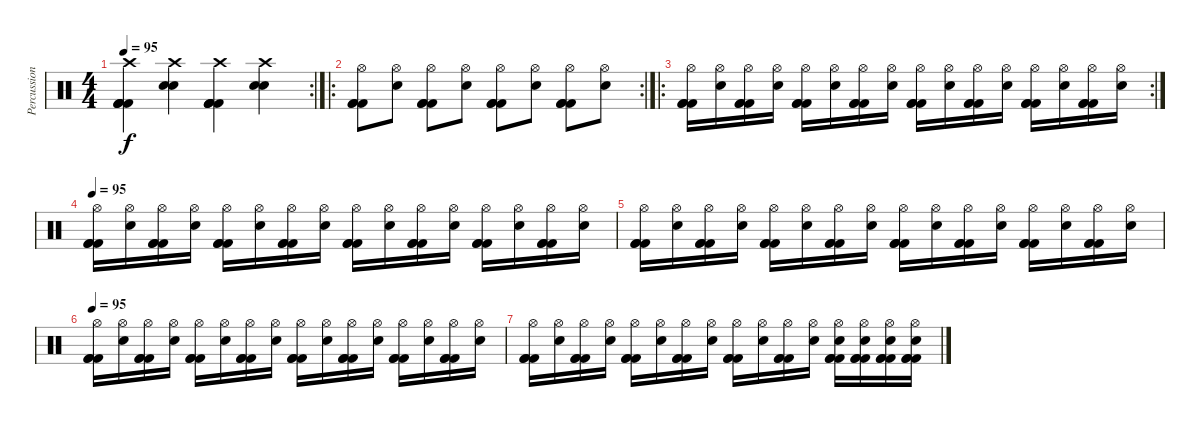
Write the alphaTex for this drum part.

\track ("Percussion" "Percussion") {instrument percussion}
\staff {score}
\articulation defaults
\rc 2
\ts (4 4)
\tempo 95
\clef neutral
\ks c
("Crash high (hit)" "Kick (hit) 2" "Kick (hit) 2" "Kick (hit) 2" "Kick (hit) 2").4{dy f} ("Crash high (hit)" "Snare (hit) 2" "Snare (hit) 2").4 ("Crash high (hit)" "Kick (hit) 2" "Kick (hit) 2" "Kick (hit) 2" "Kick (hit) 2").4 ("Crash high (hit)" "Snare (hit) 2" "Snare (hit) 2").4 |
\ro
\rc 2
("Hi-Hat (open)" "Kick (hit) 2" "Kick (hit) 2" "Kick (hit) 2").8 ("Hi-Hat (open)" "Snare (hit) 2").8 ("Hi-Hat (open)" "Kick (hit) 2" "Kick (hit) 2" "Kick (hit) 2").8 ("Hi-Hat (open)" "Snare (hit) 2").8 ("Hi-Hat (open)" "Kick (hit) 2" "Kick (hit) 2" "Kick (hit) 2").8 ("Hi-Hat (open)" "Snare (hit) 2").8 ("Hi-Hat (open)" "Kick (hit) 2" "Kick (hit) 2" "Kick (hit) 2").8 ("Hi-Hat (open)" "Snare (hit) 2").8 |
\ro
\rc 2
("Hi-Hat (open)" "Kick (hit) 2" "Kick (hit) 2" "Kick (hit) 2").16 ("Hi-Hat (open)" "Snare (hit) 2").16 ("Hi-Hat (open)" "Kick (hit) 2" "Kick (hit) 2" "Kick (hit) 2").16 ("Hi-Hat (open)" "Snare (hit) 2").16 ("Hi-Hat (open)" "Kick (hit) 2" "Kick (hit) 2" "Kick (hit) 2").16 ("Hi-Hat (open)" "Snare (hit) 2").16 ("Hi-Hat (open)" "Kick (hit) 2" "Kick (hit) 2" "Kick (hit) 2").16 ("Hi-Hat (open)" "Snare (hit) 2").16 ("Hi-Hat (open)" "Kick (hit) 2" "Kick (hit) 2" "Kick (hit) 2").16 ("Hi-Hat (open)" "Snare (hit) 2").16 ("Hi-Hat (open)" "Kick (hit) 2" "Kick (hit) 2" "Kick (hit) 2").16 ("Hi-Hat (open)" "Snare (hit) 2").16 ("Hi-Hat (open)" "Kick (hit) 2" "Kick (hit) 2" "Kick (hit) 2").16 ("Hi-Hat (open)" "Snare (hit) 2").16 ("Hi-Hat (open)" "Kick (hit) 2" "Kick (hit) 2" "Kick (hit) 2").16 ("Hi-Hat (open)" "Snare (hit) 2").16 |
\tempo 95
("Hi-Hat (open)" "Kick (hit) 2" "Kick (hit) 2" "Kick (hit) 2").16 ("Hi-Hat (open)" "Snare (hit) 2").16 ("Hi-Hat (open)" "Kick (hit) 2" "Kick (hit) 2" "Kick (hit) 2").16 ("Hi-Hat (open)" "Snare (hit) 2").16 ("Hi-Hat (open)" "Kick (hit) 2" "Kick (hit) 2" "Kick (hit) 2").16 ("Hi-Hat (open)" "Snare (hit) 2").16 ("Hi-Hat (open)" "Kick (hit) 2" "Kick (hit) 2" "Kick (hit) 2").16 ("Hi-Hat (open)" "Snare (hit) 2").16 ("Hi-Hat (open)" "Kick (hit) 2" "Kick (hit) 2" "Kick (hit) 2").16 ("Hi-Hat (open)" "Snare (hit) 2").16 ("Hi-Hat (open)" "Kick (hit) 2" "Kick (hit) 2" "Kick (hit) 2").16 ("Hi-Hat (open)" "Snare (hit) 2").16 ("Hi-Hat (open)" "Kick (hit) 2" "Kick (hit) 2" "Kick (hit) 2").16 ("Hi-Hat (open)" "Snare (hit) 2").16 ("Hi-Hat (open)" "Kick (hit) 2" "Kick (hit) 2" "Kick (hit) 2").16 ("Hi-Hat (open)" "Snare (hit) 2").16 |
("Hi-Hat (open)" "Kick (hit) 2" "Kick (hit) 2" "Kick (hit) 2").16 ("Hi-Hat (open)" "Snare (hit) 2").16 ("Hi-Hat (open)" "Kick (hit) 2" "Kick (hit) 2" "Kick (hit) 2").16 ("Hi-Hat (open)" "Snare (hit) 2").16 ("Hi-Hat (open)" "Kick (hit) 2" "Kick (hit) 2" "Kick (hit) 2").16 ("Hi-Hat (open)" "Snare (hit) 2").16 ("Hi-Hat (open)" "Kick (hit) 2" "Kick (hit) 2" "Kick (hit) 2").16 ("Hi-Hat (open)" "Snare (hit) 2").16 ("Hi-Hat (open)" "Kick (hit) 2" "Kick (hit) 2" "Kick (hit) 2").16 ("Hi-Hat (open)" "Snare (hit) 2").16 ("Hi-Hat (open)" "Kick (hit) 2" "Kick (hit) 2" "Kick (hit) 2").16 ("Hi-Hat (open)" "Snare (hit) 2").16 ("Hi-Hat (open)" "Kick (hit) 2" "Kick (hit) 2" "Kick (hit) 2").16 ("Hi-Hat (open)" "Snare (hit) 2").16 ("Hi-Hat (open)" "Kick (hit) 2" "Kick (hit) 2" "Kick (hit) 2").16 ("Hi-Hat (open)" "Snare (hit) 2").16 |
\tempo 95
("Hi-Hat (open)" "Kick (hit) 2" "Kick (hit) 2" "Kick (hit) 2").16 ("Hi-Hat (open)" "Snare (hit) 2").16 ("Hi-Hat (open)" "Kick (hit) 2" "Kick (hit) 2" "Kick (hit) 2").16 ("Hi-Hat (open)" "Snare (hit) 2").16 ("Hi-Hat (open)" "Kick (hit) 2" "Kick (hit) 2" "Kick (hit) 2").16 ("Hi-Hat (open)" "Snare (hit) 2").16 ("Hi-Hat (open)" "Kick (hit) 2" "Kick (hit) 2" "Kick (hit) 2").16 ("Hi-Hat (open)" "Snare (hit) 2").16 ("Hi-Hat (open)" "Kick (hit) 2" "Kick (hit) 2" "Kick (hit) 2").16 ("Hi-Hat (open)" "Snare (hit) 2").16 ("Hi-Hat (open)" "Kick (hit) 2" "Kick (hit) 2" "Kick (hit) 2").16 ("Hi-Hat (open)" "Snare (hit) 2").16 ("Hi-Hat (open)" "Kick (hit) 2" "Kick (hit) 2" "Kick (hit) 2").16 ("Hi-Hat (open)" "Snare (hit) 2").16 ("Hi-Hat (open)" "Kick (hit) 2" "Kick (hit) 2" "Kick (hit) 2").16 ("Hi-Hat (open)" "Snare (hit) 2").16 |
("Hi-Hat (open)" "Kick (hit) 2" "Kick (hit) 2" "Kick (hit) 2").16 ("Hi-Hat (open)" "Snare (hit) 2").16 ("Hi-Hat (open)" "Kick (hit) 2" "Kick (hit) 2" "Kick (hit) 2").16 ("Hi-Hat (open)" "Snare (hit) 2").16 ("Hi-Hat (open)" "Kick (hit) 2" "Kick (hit) 2" "Kick (hit) 2").16 ("Hi-Hat (open)" "Snare (hit) 2").16 ("Hi-Hat (open)" "Kick (hit) 2" "Kick (hit) 2" "Kick (hit) 2").16 ("Hi-Hat (open)" "Snare (hit) 2").16 ("Hi-Hat (open)" "Kick (hit) 2" "Kick (hit) 2" "Kick (hit) 2").16 ("Hi-Hat (open)" "Snare (hit) 2").16 ("Hi-Hat (open)" "Kick (hit) 2" "Kick (hit) 2" "Kick (hit) 2").16 ("Hi-Hat (open)" "Snare (hit) 2").16 ("Hi-Hat (open)" "Snare (hit) 2" "Kick (hit) 2" "Kick (hit) 2" "Kick (hit) 2").16 ("Hi-Hat (open)" "Snare (hit) 2" "Kick (hit) 2" "Kick (hit) 2" "Kick (hit) 2").16 ("Hi-Hat (open)" "Snare (hit) 2" "Kick (hit) 2" "Kick (hit) 2" "Kick (hit) 2").16 ("Hi-Hat (open)" "Snare (hit) 2" "Kick (hit) 2" "Kick (hit) 2" "Kick (hit) 2").16
